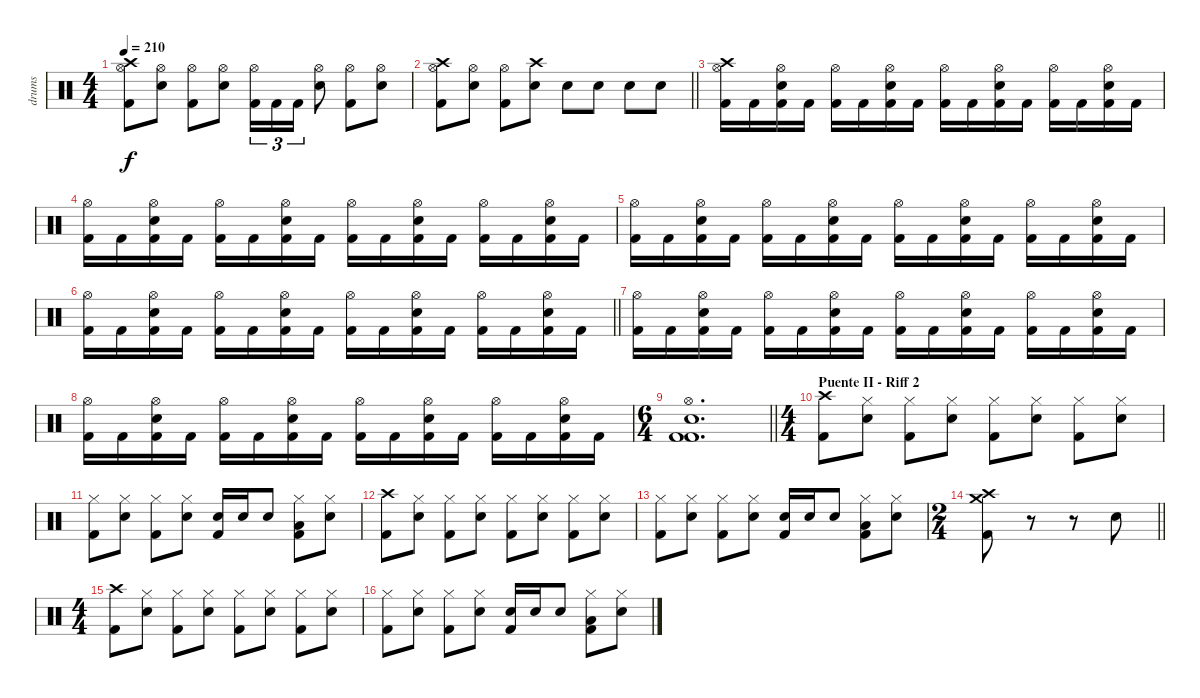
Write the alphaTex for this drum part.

\track ("drums" "drums") {instrument percussion}
\staff {score}
\articulation defaults
\ts (4 4)
\tempo 210
\clef neutral
\ks c
("Crash high (hit)" "Hi-Hat (open)" "Kick (hit) 2").8{dy f} ("Hi-Hat (open)" "Electric Snare (hit)").8 ("Hi-Hat (open)" "Kick (hit) 2").8 ("Hi-Hat (open)" "Electric Snare (hit)").8 ("Hi-Hat (open)" "Kick (hit) 2").16{tu (3 2)} "Kick (hit) 2".16{tu (3 2)} "Kick (hit) 2".16{tu (3 2)} ("Hi-Hat (open)" "Electric Snare (hit)").8 ("Hi-Hat (open)" "Kick (hit) 2").8 ("Hi-Hat (open)" "Electric Snare (hit)").8 |
\barLineRight lightlight
("Crash high (hit)" "Hi-Hat (open)" "Kick (hit) 2").8 ("Hi-Hat (open)" "Electric Snare (hit)").8 ("Hi-Hat (open)" "Kick (hit) 2").8 ("Crash high (hit)" "Electric Snare (hit)").8 "Electric Snare (hit)".8 "Electric Snare (hit)".8 "Electric Snare (hit)".8 "Electric Snare (hit)".8 |
("Crash high (hit)" "Hi-Hat (open)" "Kick (hit) 2").16 "Kick (hit) 2".16 ("Hi-Hat (open)" "Electric Snare (hit)" "Kick (hit) 2").16 "Kick (hit) 2".16 ("Hi-Hat (open)" "Kick (hit) 2").16 "Kick (hit) 2".16 ("Hi-Hat (open)" "Electric Snare (hit)" "Kick (hit) 2").16 "Kick (hit) 2".16 ("Hi-Hat (open)" "Kick (hit) 2").16 "Kick (hit) 2".16 ("Hi-Hat (open)" "Electric Snare (hit)" "Kick (hit) 2").16 "Kick (hit) 2".16 ("Hi-Hat (open)" "Kick (hit) 2").16 "Kick (hit) 2".16 ("Hi-Hat (open)" "Electric Snare (hit)" "Kick (hit) 2").16 "Kick (hit) 2".16 |
("Hi-Hat (open)" "Kick (hit) 2").16 "Kick (hit) 2".16 ("Hi-Hat (open)" "Electric Snare (hit)" "Kick (hit) 2").16 "Kick (hit) 2".16 ("Hi-Hat (open)" "Kick (hit) 2").16 "Kick (hit) 2".16 ("Hi-Hat (open)" "Electric Snare (hit)" "Kick (hit) 2").16 "Kick (hit) 2".16 ("Hi-Hat (open)" "Kick (hit) 2").16 "Kick (hit) 2".16 ("Hi-Hat (open)" "Electric Snare (hit)" "Kick (hit) 2").16 "Kick (hit) 2".16 ("Hi-Hat (open)" "Kick (hit) 2").16 "Kick (hit) 2".16 ("Hi-Hat (open)" "Electric Snare (hit)" "Kick (hit) 2").16 "Kick (hit) 2".16 |
("Hi-Hat (open)" "Kick (hit) 2").16 "Kick (hit) 2".16 ("Hi-Hat (open)" "Electric Snare (hit)" "Kick (hit) 2").16 "Kick (hit) 2".16 ("Hi-Hat (open)" "Kick (hit) 2").16 "Kick (hit) 2".16 ("Hi-Hat (open)" "Electric Snare (hit)" "Kick (hit) 2").16 "Kick (hit) 2".16 ("Hi-Hat (open)" "Kick (hit) 2").16 "Kick (hit) 2".16 ("Hi-Hat (open)" "Electric Snare (hit)" "Kick (hit) 2").16 "Kick (hit) 2".16 ("Hi-Hat (open)" "Kick (hit) 2").16 "Kick (hit) 2".16 ("Hi-Hat (open)" "Electric Snare (hit)" "Kick (hit) 2").16 "Kick (hit) 2".16 |
\barLineRight lightlight
("Hi-Hat (open)" "Kick (hit) 2").16 "Kick (hit) 2".16 ("Hi-Hat (open)" "Electric Snare (hit)" "Kick (hit) 2").16 "Kick (hit) 2".16 ("Hi-Hat (open)" "Kick (hit) 2").16 "Kick (hit) 2".16 ("Hi-Hat (open)" "Electric Snare (hit)" "Kick (hit) 2").16 "Kick (hit) 2".16 ("Hi-Hat (open)" "Kick (hit) 2").16 "Kick (hit) 2".16 ("Hi-Hat (open)" "Electric Snare (hit)" "Kick (hit) 2").16 "Kick (hit) 2".16 ("Hi-Hat (open)" "Kick (hit) 2").16 "Kick (hit) 2".16 ("Hi-Hat (open)" "Electric Snare (hit)" "Kick (hit) 2").16 "Kick (hit) 2".16 |
("Hi-Hat (open)" "Kick (hit) 2").16 "Kick (hit) 2".16 ("Hi-Hat (open)" "Electric Snare (hit)" "Kick (hit) 2").16 "Kick (hit) 2".16 ("Hi-Hat (open)" "Kick (hit) 2").16 "Kick (hit) 2".16 ("Hi-Hat (open)" "Electric Snare (hit)" "Kick (hit) 2").16 "Kick (hit) 2".16 ("Hi-Hat (open)" "Kick (hit) 2").16 "Kick (hit) 2".16 ("Hi-Hat (open)" "Electric Snare (hit)" "Kick (hit) 2").16 "Kick (hit) 2".16 ("Hi-Hat (open)" "Kick (hit) 2").16 "Kick (hit) 2".16 ("Hi-Hat (open)" "Electric Snare (hit)" "Kick (hit) 2").16 "Kick (hit) 2".16 |
("Hi-Hat (open)" "Kick (hit) 2").16 "Kick (hit) 2".16 ("Hi-Hat (open)" "Electric Snare (hit)" "Kick (hit) 2").16 "Kick (hit) 2".16 ("Hi-Hat (open)" "Kick (hit) 2").16 "Kick (hit) 2".16 ("Hi-Hat (open)" "Electric Snare (hit)" "Kick (hit) 2").16 "Kick (hit) 2".16 ("Hi-Hat (open)" "Kick (hit) 2").16 "Kick (hit) 2".16 ("Hi-Hat (open)" "Electric Snare (hit)" "Kick (hit) 2").16 "Kick (hit) 2".16 ("Hi-Hat (open)" "Kick (hit) 2").16 "Kick (hit) 2".16 ("Hi-Hat (open)" "Electric Snare (hit)" "Kick (hit) 2").16 "Kick (hit) 2".16 |
\ts (6 4)
\barLineRight lightlight
("Hi-Hat (open)" "Electric Snare (hit)" "Kick (hit) 2" "Kick (hit) 2").1{d} |
\ts (4 4)
\section ("" "Puente II - Riff 2")
("Crash high (hit)" "Kick (hit) 2").8 ("Hi-Hat (closed)" "Electric Snare (hit)").8 ("Hi-Hat (closed)" "Kick (hit) 2").8 ("Hi-Hat (closed)" "Electric Snare (hit)").8 ("Hi-Hat (closed)" "Kick (hit) 2").8 ("Hi-Hat (closed)" "Electric Snare (hit)").8 ("Hi-Hat (closed)" "Kick (hit) 2").8 ("Hi-Hat (closed)" "Electric Snare (hit)").8 |
("Hi-Hat (closed)" "Kick (hit) 2").8 ("Hi-Hat (closed)" "Electric Snare (hit)").8 ("Hi-Hat (closed)" "Kick (hit) 2").8 ("Hi-Hat (closed)" "Electric Snare (hit)").8 ("Electric Snare (hit)" "Kick (hit) 2").16 "Electric Snare (hit)".16 "Electric Snare (hit)".8 ("Hi-Hat (closed)" "Low Floor Tom (hit)" "Kick (hit) 2").8 ("Hi-Hat (closed)" "Electric Snare (hit)").8 |
("Crash high (hit)" "Kick (hit) 2").8 ("Hi-Hat (closed)" "Electric Snare (hit)").8 ("Hi-Hat (closed)" "Kick (hit) 2").8 ("Hi-Hat (closed)" "Electric Snare (hit)").8 ("Hi-Hat (closed)" "Kick (hit) 2").8 ("Hi-Hat (closed)" "Electric Snare (hit)").8 ("Hi-Hat (closed)" "Kick (hit) 2").8 ("Hi-Hat (closed)" "Electric Snare (hit)").8 |
("Hi-Hat (closed)" "Kick (hit) 2").8 ("Hi-Hat (closed)" "Electric Snare (hit)").8 ("Hi-Hat (closed)" "Kick (hit) 2").8 ("Hi-Hat (closed)" "Electric Snare (hit)").8 ("Electric Snare (hit)" "Kick (hit) 2").16 "Electric Snare (hit)".16 "Electric Snare (hit)".8 ("Hi-Hat (closed)" "Low Floor Tom (hit)" "Kick (hit) 2").8 ("Hi-Hat (closed)" "Electric Snare (hit)").8 |
\ts (2 4)
\barLineRight lightlight
("Crash high (hit)" "Crash medium (hit)" "Kick (hit) 2").8 r.8 r.8 "Electric Snare (hit)".8 |
\ts (4 4)
("Crash high (hit)" "Kick (hit) 2").8 ("Hi-Hat (closed)" "Electric Snare (hit)").8 ("Hi-Hat (closed)" "Kick (hit) 2").8 ("Hi-Hat (closed)" "Electric Snare (hit)").8 ("Hi-Hat (closed)" "Kick (hit) 2").8 ("Hi-Hat (closed)" "Electric Snare (hit)").8 ("Hi-Hat (closed)" "Kick (hit) 2").8 ("Hi-Hat (closed)" "Electric Snare (hit)").8 |
("Hi-Hat (closed)" "Kick (hit) 2").8 ("Hi-Hat (closed)" "Electric Snare (hit)").8 ("Hi-Hat (closed)" "Kick (hit) 2").8 ("Hi-Hat (closed)" "Electric Snare (hit)").8 ("Electric Snare (hit)" "Kick (hit) 2").16 "Electric Snare (hit)".16 "Electric Snare (hit)".8 ("Hi-Hat (closed)" "Low Floor Tom (hit)" "Kick (hit) 2").8 ("Hi-Hat (closed)" "Electric Snare (hit)").8
